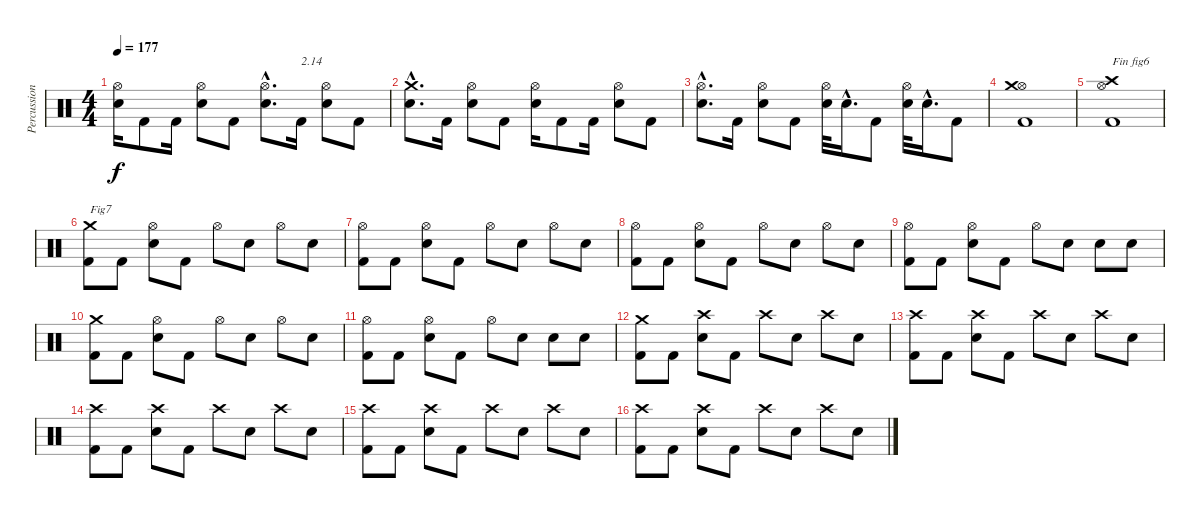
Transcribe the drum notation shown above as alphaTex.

\track ("Percussions" "Percussion") {instrument percussion}
\staff {score}
\articulation defaults
\ts (4 4)
\tempo 177
\clef neutral
\ks c
("Electric Snare (hit)" "Hi-Hat (open)").16{dy f} "Kick (hit) 2".8 "Kick (hit) 2".16 ("Electric Snare (hit)" "Hi-Hat (open)").8 "Kick (hit) 2".8 ("Electric Snare (hit)"{hac} "Hi-Hat (open)"{hac}).8{d} "Kick (hit) 2".16{txt "2.14"} ("Electric Snare (hit)" "Hi-Hat (open)").8 "Kick (hit) 2".8 |
("Electric Snare (hit)"{hac} "Crash medium (hit)"{hac}).8{d} "Kick (hit) 2".16 ("Electric Snare (hit)" "Hi-Hat (open)").8 "Kick (hit) 2".8 ("Electric Snare (hit)" "Hi-Hat (open)").16 "Kick (hit) 2".8 "Kick (hit) 2".16 ("Electric Snare (hit)" "Hi-Hat (open)").8 "Kick (hit) 2".8 |
("Electric Snare (hit)"{hac} "Hi-Hat (open)"{hac}).8{d} "Kick (hit) 2".16 ("Electric Snare (hit)" "Hi-Hat (open)").8 "Kick (hit) 2".8 ("Electric Snare (hit)" "Hi-Hat (open)").32 "Electric Snare (hit)"{hac}.16{d} "Kick (hit) 2".8 ("Electric Snare (hit)" "Hi-Hat (open)").32 "Electric Snare (hit)"{hac}.16{d} "Kick (hit) 2".8 |
("Kick (hit) 2" "Hi-Hat (open)" "Crash medium (hit)").1 |
("Kick (hit) 2" "Hi-Hat (open)" "Crash high (hit)").1{txt "Fin fig6"} |
("Kick (hit) 2" "Crash medium (hit)").8{txt "Fig7"} "Kick (hit) 2".8 ("Electric Snare (hit)" "Hi-Hat (open)").8 "Kick (hit) 2".8 "Hi-Hat (open)".8 "Electric Snare (hit)".8 "Hi-Hat (open)".8 "Electric Snare (hit)".8 |
("Kick (hit) 2" "Hi-Hat (open)").8 "Kick (hit) 2".8 ("Electric Snare (hit)" "Hi-Hat (open)").8 "Kick (hit) 2".8 "Hi-Hat (open)".8 "Electric Snare (hit)".8 "Hi-Hat (open)".8 "Electric Snare (hit)".8 |
("Kick (hit) 2" "Hi-Hat (open)").8 "Kick (hit) 2".8 ("Electric Snare (hit)" "Hi-Hat (open)").8 "Kick (hit) 2".8 "Hi-Hat (open)".8 "Electric Snare (hit)".8 "Hi-Hat (open)".8 "Electric Snare (hit)".8 |
("Kick (hit) 2" "Hi-Hat (open)").8 "Kick (hit) 2".8 ("Electric Snare (hit)" "Hi-Hat (open)").8 "Kick (hit) 2".8 "Hi-Hat (open)".8 "Electric Snare (hit)".8 "Electric Snare (hit)".8 "Electric Snare (hit)".8 |
("Kick (hit) 2" "Crash medium (hit)").8 "Kick (hit) 2".8 ("Electric Snare (hit)" "Hi-Hat (open)").8 "Kick (hit) 2".8 "Hi-Hat (open)".8 "Electric Snare (hit)".8 "Hi-Hat (open)".8 "Electric Snare (hit)".8 |
("Kick (hit) 2" "Hi-Hat (open)").8 "Kick (hit) 2".8 ("Electric Snare (hit)" "Hi-Hat (open)").8 "Kick (hit) 2".8 "Hi-Hat (open)".8 "Electric Snare (hit)".8 "Electric Snare (hit)".8 "Electric Snare (hit)".8 |
("Kick (hit) 2" "Crash medium (hit)").8 "Kick (hit) 2".8 ("Electric Snare (hit)" "Crash high (hit)").8 "Kick (hit) 2".8 "Crash high (hit)".8 "Electric Snare (hit)".8 "Crash high (hit)".8 "Electric Snare (hit)".8 |
("Kick (hit) 2" "Crash high (hit)").8 "Kick (hit) 2".8 ("Electric Snare (hit)" "Crash high (hit)").8 "Kick (hit) 2".8 "Crash high (hit)".8 "Electric Snare (hit)".8 "Crash high (hit)".8 "Electric Snare (hit)".8 |
("Kick (hit) 2" "Crash high (hit)").8 "Kick (hit) 2".8 ("Electric Snare (hit)" "Crash high (hit)").8 "Kick (hit) 2".8 "Crash high (hit)".8 "Electric Snare (hit)".8 "Crash high (hit)".8 "Electric Snare (hit)".8 |
("Kick (hit) 2" "Crash high (hit)").8 "Kick (hit) 2".8 ("Electric Snare (hit)" "Crash high (hit)").8 "Kick (hit) 2".8 "Crash high (hit)".8 "Electric Snare (hit)".8 "Crash high (hit)".8 "Electric Snare (hit)".8 |
("Kick (hit) 2" "Crash high (hit)").8 "Kick (hit) 2".8 ("Electric Snare (hit)" "Crash high (hit)").8 "Kick (hit) 2".8 "Crash high (hit)".8 "Electric Snare (hit)".8 "Crash high (hit)".8 "Electric Snare (hit)".8
